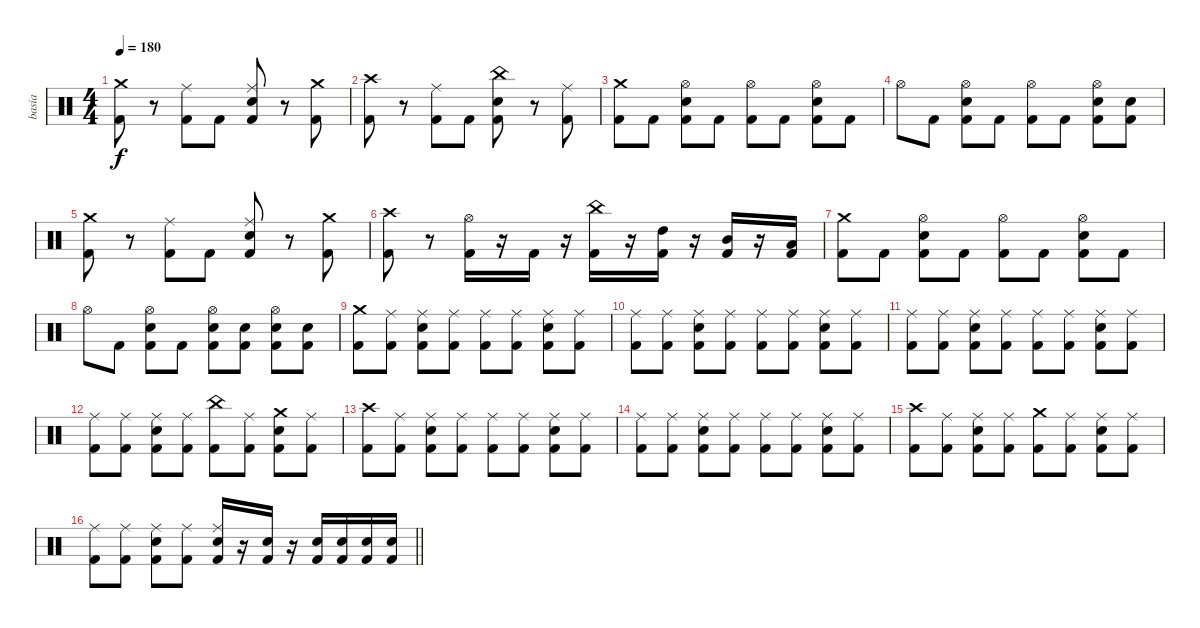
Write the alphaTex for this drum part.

\track ("basia" "basia") {instrument percussion}
\staff {score}
\articulation defaults
\ts (4 4)
\tempo 180
\clef neutral
\ks c
("Crash medium (hit)" "Kick (hit) 2").8{dy f} r.8 ("Ride (middle)" "Kick (hit) 2").8 "Kick (hit) 2".8 ("Ride (middle)" "Snare (hit) 2" "Kick (hit) 2").8 r.8 ("Crash medium (hit)" "Kick (hit) 2").8 |
("Crash high (hit)" "Kick (hit) 2").8 r.8 ("Ride (middle)" "Kick (hit) 2").8 "Kick (hit) 2".8 ("China (hit)" "Snare (hit) 2" "Kick (hit) 2").8 r.8 ("Ride (middle)" "Kick (hit) 2").8 |
("Crash medium (hit)" "Kick (hit) 2").8 "Kick (hit) 2".8 ("Hi-Hat (open)" "Snare (hit) 2" "Kick (hit) 2").8 "Kick (hit) 2".8 ("Hi-Hat (open)" "Kick (hit) 2").8 "Kick (hit) 2".8 ("Hi-Hat (open)" "Snare (hit) 2" "Kick (hit) 2").8 "Kick (hit) 2".8 |
"Hi-Hat (open)".8 "Kick (hit) 2".8 ("Hi-Hat (open)" "Snare (hit) 2" "Kick (hit) 2").8 "Kick (hit) 2".8 ("Hi-Hat (open)" "Kick (hit) 2").8 "Kick (hit) 2".8 ("Hi-Hat (open)" "Snare (hit) 2" "Kick (hit) 2").8 ("Snare (hit) 2" "Kick (hit) 2").8 |
("Crash medium (hit)" "Kick (hit) 2").8 r.8 ("Ride (middle)" "Kick (hit) 2").8 "Kick (hit) 2".8 ("Ride (middle)" "Snare (hit) 2" "Kick (hit) 2").8 r.8 ("Crash medium (hit)" "Kick (hit) 2").8 |
("Crash high (hit)" "Kick (hit) 2").8 r.8 ("Hi-Hat (open)" "Kick (hit) 2").16 r.16 "Kick (hit) 2".16 r.16 ("China (hit)" "Kick (hit) 2").16 r.16 ("High Tom (hit)" "Kick (hit) 2").16 r.16 ("Mid Tom (hit)" "Kick (hit) 2").16 r.16 ("Low Tom (hit)" "Kick (hit) 2").16 |
("Crash medium (hit)" "Kick (hit) 2").8 "Kick (hit) 2".8 ("Hi-Hat (open)" "Snare (hit) 2" "Kick (hit) 2").8 "Kick (hit) 2".8 ("Hi-Hat (open)" "Kick (hit) 2").8 "Kick (hit) 2".8 ("Hi-Hat (open)" "Snare (hit) 2" "Kick (hit) 2").8 "Kick (hit) 2".8 |
"Hi-Hat (open)".8 "Kick (hit) 2".8 ("Hi-Hat (open)" "Snare (hit) 2" "Kick (hit) 2").8 "Kick (hit) 2".8 ("Hi-Hat (open)" "Snare (hit) 2" "Kick (hit) 2").8 ("Snare (hit) 2" "Kick (hit) 2").8 ("Hi-Hat (open)" "Snare (hit) 2" "Kick (hit) 2").8 ("Snare (hit) 2" "Kick (hit) 2").8 |
("Crash medium (hit)" "Kick (hit) 2").8 ("Ride (middle)" "Kick (hit) 2").8 ("Ride (middle)" "Snare (hit) 2" "Kick (hit) 2").8 ("Ride (middle)" "Kick (hit) 2").8 ("Ride (middle)" "Kick (hit) 2").8 ("Ride (middle)" "Kick (hit) 2").8 ("Ride (middle)" "Snare (hit) 2" "Kick (hit) 2").8 ("Ride (middle)" "Kick (hit) 2").8 |
("Ride (middle)" "Kick (hit) 2").8 ("Ride (middle)" "Kick (hit) 2").8 ("Ride (middle)" "Snare (hit) 2" "Kick (hit) 2").8 ("Ride (middle)" "Kick (hit) 2").8 ("Ride (middle)" "Kick (hit) 2").8 ("Ride (middle)" "Kick (hit) 2").8 ("Ride (middle)" "Snare (hit) 2" "Kick (hit) 2").8 ("Ride (middle)" "Kick (hit) 2").8 |
("Ride (middle)" "Kick (hit) 2").8 ("Ride (middle)" "Kick (hit) 2").8 ("Ride (middle)" "Snare (hit) 2" "Kick (hit) 2").8 ("Ride (middle)" "Kick (hit) 2").8 ("Ride (middle)" "Kick (hit) 2").8 ("Ride (middle)" "Kick (hit) 2").8 ("Ride (middle)" "Snare (hit) 2" "Kick (hit) 2").8 ("Ride (middle)" "Kick (hit) 2").8 |
("Ride (middle)" "Kick (hit) 2").8 ("Ride (middle)" "Kick (hit) 2").8 ("Ride (middle)" "Snare (hit) 2" "Kick (hit) 2").8 ("Ride (middle)" "Kick (hit) 2").8 ("China (hit)" "Kick (hit) 2").8 ("Ride (middle)" "Kick (hit) 2").8 ("Crash medium (hit)" "Snare (hit) 2" "Kick (hit) 2").8 ("Ride (middle)" "Kick (hit) 2").8 |
("Crash high (hit)" "Kick (hit) 2").8 ("Ride (middle)" "Kick (hit) 2").8 ("Ride (middle)" "Snare (hit) 2" "Kick (hit) 2").8 ("Ride (middle)" "Kick (hit) 2").8 ("Ride (middle)" "Kick (hit) 2").8 ("Ride (middle)" "Kick (hit) 2").8 ("Ride (middle)" "Snare (hit) 2" "Kick (hit) 2").8 ("Ride (middle)" "Kick (hit) 2").8 |
("Ride (middle)" "Kick (hit) 2").8 ("Ride (middle)" "Kick (hit) 2").8 ("Ride (middle)" "Snare (hit) 2" "Kick (hit) 2").8 ("Ride (middle)" "Kick (hit) 2").8 ("Ride (middle)" "Kick (hit) 2").8 ("Ride (middle)" "Kick (hit) 2").8 ("Ride (middle)" "Snare (hit) 2" "Kick (hit) 2").8 ("Ride (middle)" "Kick (hit) 2").8 |
("Crash high (hit)" "Kick (hit) 2").8 ("Ride (middle)" "Kick (hit) 2").8 ("Ride (middle)" "Snare (hit) 2" "Kick (hit) 2").8 ("Ride (middle)" "Kick (hit) 2").8 ("Crash medium (hit)" "Kick (hit) 2").8 ("Ride (middle)" "Kick (hit) 2").8 ("Ride (middle)" "Snare (hit) 2" "Kick (hit) 2").8 ("Ride (middle)" "Kick (hit) 2").8 |
\barLineRight lightlight
("Ride (middle)" "Kick (hit) 2").8 ("Ride (middle)" "Kick (hit) 2").8 ("Ride (middle)" "Snare (hit) 2" "Kick (hit) 2").8 ("Ride (middle)" "Kick (hit) 2").8 ("Ride (middle)" "Snare (hit) 2" "Kick (hit) 2").16 r.16 ("Snare (hit) 2" "Kick (hit) 2").16 r.16 ("Snare (hit) 2" "Kick (hit) 2").16 ("Snare (hit) 2" "Kick (hit) 2").16 ("Snare (hit) 2" "Kick (hit) 2").16 ("Snare (hit) 2" "Kick (hit) 2").16
